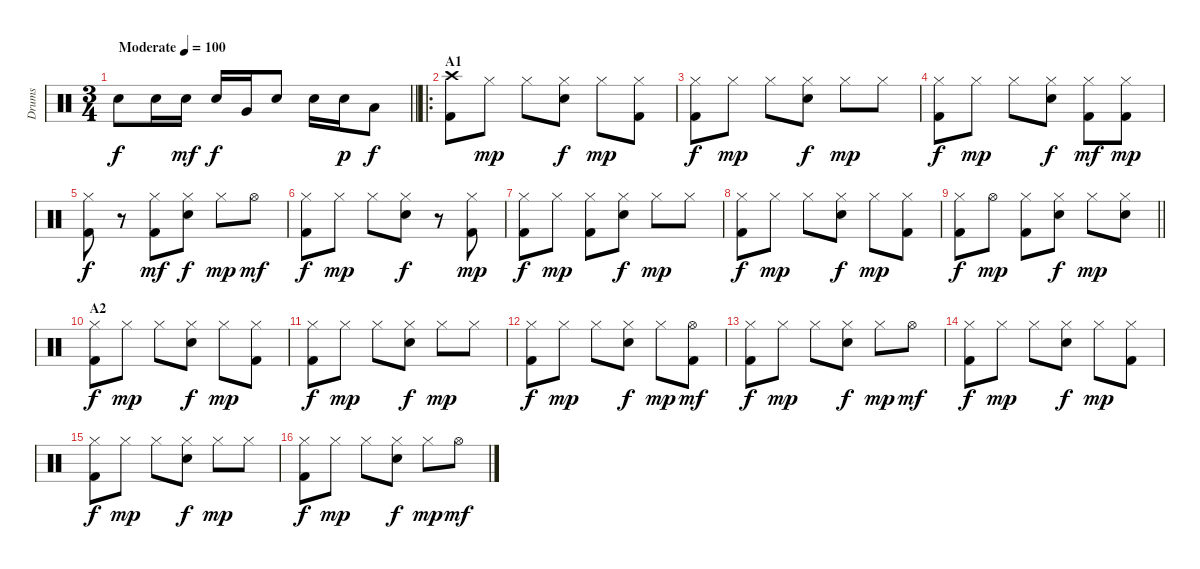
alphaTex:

\track ("Drums" "Drums") {instrument percussion}
\staff {score}
\articulation defaults
\ts (3 4)
\tempo (100 "Moderate")
\clef neutral
\barLineRight lightlight
\ks c "Electric Snare (hit)".8{dy f} "Electric Snare (hit)".16 "Electric Snare (hit)".16{dy mf} "Electric Snare (hit)".16{dy f} "Very Low Tom (hit)".16 "Electric Snare (hit)".8 "Electric Snare (hit)".16 "Electric Snare (hit)".16{dy p} "Low Floor Tom (hit)".8{dy f}
|
\ro
\section ("" "A1")
("Crash high (hit)" "Kick (hit) 2").8 "Hi-Hat (closed)".8{dy mp} "Hi-Hat (closed)".8 ("Hi-Hat (closed)" "Electric Snare (hit)").8{dy f} "Hi-Hat (closed)".8{dy mp} ("Hi-Hat (closed)" "Kick (hit) 2").8 |
("Hi-Hat (closed)" "Kick (hit) 2").8{dy f} "Hi-Hat (closed)".8{dy mp} "Hi-Hat (closed)".8 ("Hi-Hat (closed)" "Electric Snare (hit)").8{dy f} "Hi-Hat (closed)".8{dy mp} "Hi-Hat (closed)".8 |
("Hi-Hat (closed)" "Kick (hit) 2").8{dy f} "Hi-Hat (closed)".8{dy mp} "Hi-Hat (closed)".8 ("Hi-Hat (closed)" "Electric Snare (hit)").8{dy f} ("Hi-Hat (closed)" "Kick (hit) 2").8{dy mf} ("Hi-Hat (closed)" "Kick (hit) 2").8{dy mp} |
("Hi-Hat (closed)" "Kick (hit) 2").8{dy f} r.8 ("Hi-Hat (closed)" "Kick (hit) 2").8{dy mf} ("Hi-Hat (closed)" "Electric Snare (hit)").8{dy f} "Hi-Hat (closed)".8{dy mp} "Hi-Hat (open)".8{dy mf} |
("Hi-Hat (closed)" "Kick (hit) 2").8{dy f} "Hi-Hat (closed)".8{dy mp} "Hi-Hat (closed)".8 ("Hi-Hat (closed)" "Electric Snare (hit)").8{dy f} r.8 ("Hi-Hat (closed)" "Kick (hit) 2").8{dy mp} |
("Hi-Hat (closed)" "Kick (hit) 2").8{dy f} "Hi-Hat (closed)".8{dy mp} ("Hi-Hat (closed)" "Kick (hit) 2").8 ("Hi-Hat (closed)" "Electric Snare (hit)").8{dy f} "Hi-Hat (closed)".8{dy mp} "Hi-Hat (closed)".8 |
("Hi-Hat (closed)" "Kick (hit) 2").8{dy f} "Hi-Hat (closed)".8{dy mp} "Hi-Hat (closed)".8 ("Hi-Hat (closed)" "Electric Snare (hit)").8{dy f} "Hi-Hat (closed)".8{dy mp} ("Hi-Hat (closed)" "Kick (hit) 2").8 |
\barLineRight lightlight
("Hi-Hat (closed)" "Kick (hit) 2").8{dy f} "Hi-Hat (open)".8{dy mp} ("Hi-Hat (closed)" "Kick (hit) 2").8 ("Hi-Hat (closed)" "Electric Snare (hit)").8{dy f} "Hi-Hat (closed)".8{dy mp} ("Hi-Hat (closed)" "Electric Snare (hit)").8 |
\section ("" "A2")
("Hi-Hat (closed)" "Kick (hit) 2").8{dy f} "Hi-Hat (closed)".8{dy mp} "Hi-Hat (closed)".8 ("Hi-Hat (closed)" "Electric Snare (hit)").8{dy f} "Hi-Hat (closed)".8{dy mp} ("Hi-Hat (closed)" "Kick (hit) 2").8 |
("Hi-Hat (closed)" "Kick (hit) 2").8{dy f} "Hi-Hat (closed)".8{dy mp} "Hi-Hat (closed)".8 ("Hi-Hat (closed)" "Electric Snare (hit)").8{dy f} "Hi-Hat (closed)".8{dy mp} "Hi-Hat (closed)".8 |
("Hi-Hat (closed)" "Kick (hit) 2").8{dy f} "Hi-Hat (closed)".8{dy mp} "Hi-Hat (closed)".8 ("Hi-Hat (closed)" "Electric Snare (hit)").8{dy f} "Hi-Hat (closed)".8{dy mp} ("Hi-Hat (open)" "Kick (hit) 2").8{dy mf} |
("Hi-Hat (closed)" "Kick (hit) 2").8{dy f} "Hi-Hat (closed)".8{dy mp} "Hi-Hat (closed)".8 ("Hi-Hat (closed)" "Electric Snare (hit)").8{dy f} "Hi-Hat (closed)".8{dy mp} "Hi-Hat (open)".8{dy mf} |
("Hi-Hat (closed)" "Kick (hit) 2").8{dy f} "Hi-Hat (closed)".8{dy mp} "Hi-Hat (closed)".8 ("Hi-Hat (closed)" "Electric Snare (hit)").8{dy f} "Hi-Hat (closed)".8{dy mp} ("Hi-Hat (closed)" "Kick (hit) 2").8 |
("Hi-Hat (closed)" "Kick (hit) 2").8{dy f} "Hi-Hat (closed)".8{dy mp} "Hi-Hat (closed)".8 ("Hi-Hat (closed)" "Electric Snare (hit)").8{dy f} "Hi-Hat (closed)".8{dy mp} "Hi-Hat (closed)".8 |
("Hi-Hat (closed)" "Kick (hit) 2").8{dy f} "Hi-Hat (closed)".8{dy mp} "Hi-Hat (closed)".8 ("Hi-Hat (closed)" "Electric Snare (hit)").8{dy f} "Hi-Hat (closed)".8{dy mp} "Hi-Hat (open)".8{dy mf}
